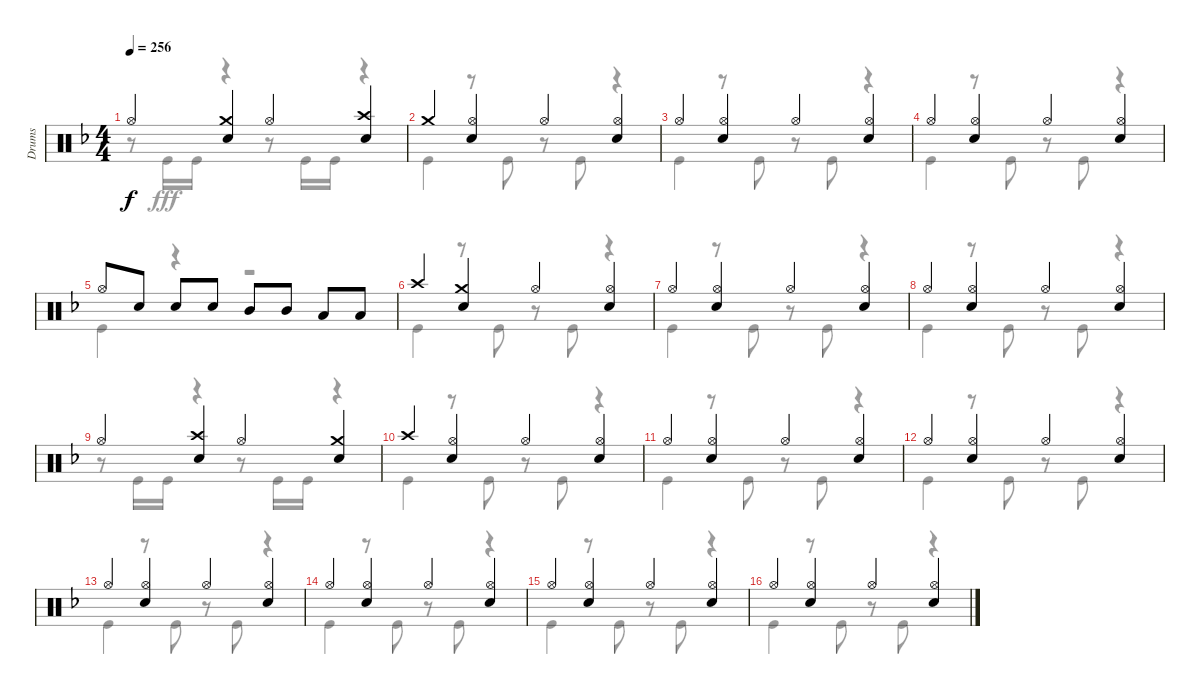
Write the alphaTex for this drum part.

\track ("Drums" "Drums") {instrument percussion}
\staff {score}
\articulation defaults
\voice
\ts (4 4)
\tempo 256
\clef neutral
\ks f "Hi-Hat (open)".4{dy f}
("Crash medium (hit)" "Snare (hit) 2").4 "Hi-Hat (open)".4 ("Crash high (hit)" "Snare (hit) 2").4 |
"Crash medium (hit)".4 ("Hi-Hat (open)" "Snare (hit) 2").4 "Hi-Hat (open)".4 ("Hi-Hat (open)" "Snare (hit) 2").4 |
"Hi-Hat (open)".4 ("Hi-Hat (open)" "Snare (hit) 2").4 "Hi-Hat (open)".4 ("Hi-Hat (open)" "Snare (hit) 2").4 |
"Hi-Hat (open)".4 ("Hi-Hat (open)" "Snare (hit) 2").4 "Hi-Hat (open)".4 ("Hi-Hat (open)" "Snare (hit) 2").4 |
"Hi-Hat (open)".8 "Snare (hit) 2".8 "Snare (hit) 2".8 "Snare (hit) 2".8 "Mid Tom (hit)".8 "Mid Tom (hit)".8 "Low Tom (hit)".8 "Low Tom (hit)".8 |
"Crash high (hit)".4 ("Crash medium (hit)" "Snare (hit) 2").4 "Hi-Hat (open)".4 ("Hi-Hat (open)" "Snare (hit) 2").4 |
"Hi-Hat (open)".4 ("Hi-Hat (open)" "Snare (hit) 2").4 "Hi-Hat (open)".4 ("Hi-Hat (open)" "Snare (hit) 2").4 |
"Hi-Hat (open)".4 ("Hi-Hat (open)" "Snare (hit) 2").4 "Hi-Hat (open)".4 ("Hi-Hat (open)" "Snare (hit) 2").4 |
"Hi-Hat (open)".4 ("Crash high (hit)" "Snare (hit) 2").4 "Hi-Hat (open)".4 ("Crash medium (hit)" "Snare (hit) 2").4 |
"Crash high (hit)".4 ("Hi-Hat (open)" "Snare (hit) 2").4 "Hi-Hat (open)".4 ("Hi-Hat (open)" "Snare (hit) 2").4 |
"Hi-Hat (open)".4 ("Hi-Hat (open)" "Snare (hit) 2").4 "Hi-Hat (open)".4 ("Hi-Hat (open)" "Snare (hit) 2").4 |
"Hi-Hat (open)".4 ("Hi-Hat (open)" "Snare (hit) 2").4 "Hi-Hat (open)".4 ("Hi-Hat (open)" "Snare (hit) 2").4 |
"Hi-Hat (open)".4 ("Hi-Hat (open)" "Snare (hit) 2").4 "Hi-Hat (open)".4 ("Hi-Hat (open)" "Snare (hit) 2").4 |
"Hi-Hat (open)".4 ("Hi-Hat (open)" "Snare (hit) 2").4 "Hi-Hat (open)".4 ("Hi-Hat (open)" "Snare (hit) 2").4 |
"Hi-Hat (open)".4 ("Hi-Hat (open)" "Snare (hit) 2").4 "Hi-Hat (open)".4 ("Hi-Hat (open)" "Snare (hit) 2").4 |
"Hi-Hat (open)".4 ("Hi-Hat (open)" "Snare (hit) 2").4 "Hi-Hat (open)".4 ("Hi-Hat (open)" "Snare (hit) 2").4
\voice
\clef neutral
\ottava regular
\simile none
\ks f
r.8{dy fff} "Kick (hit)".16 "Kick (hit)".16 r.4 r.8 "Kick (hit)".16 "Kick (hit)".16 r.4 |
"Kick (hit)".4 r.8 "Kick (hit)".8 r.8 "Kick (hit)".8 r.4 |
"Kick (hit)".4 r.8 "Kick (hit)".8 r.8 "Kick (hit)".8 r.4 |
"Kick (hit)".4 r.8 "Kick (hit)".8 r.8 "Kick (hit)".8 r.4 |
"Kick (hit)".4 r.4 r.2 |
"Kick (hit)".4 r.8 "Kick (hit)".8 r.8 "Kick (hit)".8 r.4 |
"Kick (hit)".4 r.8 "Kick (hit)".8 r.8 "Kick (hit)".8 r.4 |
"Kick (hit)".4 r.8 "Kick (hit)".8 r.8 "Kick (hit)".8 r.4 |
r.8 "Kick (hit)".16 "Kick (hit)".16 r.4 r.8 "Kick (hit)".16 "Kick (hit)".16 r.4 |
"Kick (hit)".4 r.8 "Kick (hit)".8 r.8 "Kick (hit)".8 r.4 |
"Kick (hit)".4 r.8 "Kick (hit)".8 r.8 "Kick (hit)".8 r.4 |
"Kick (hit)".4 r.8 "Kick (hit)".8 r.8 "Kick (hit)".8 r.4 |
"Kick (hit)".4 r.8 "Kick (hit)".8 r.8 "Kick (hit)".8 r.4 |
"Kick (hit)".4 r.8 "Kick (hit)".8 r.8 "Kick (hit)".8 r.4 |
"Kick (hit)".4 r.8 "Kick (hit)".8 r.8 "Kick (hit)".8 r.4 |
"Kick (hit)".4 r.8 "Kick (hit)".8 r.8 "Kick (hit)".8 r.4
